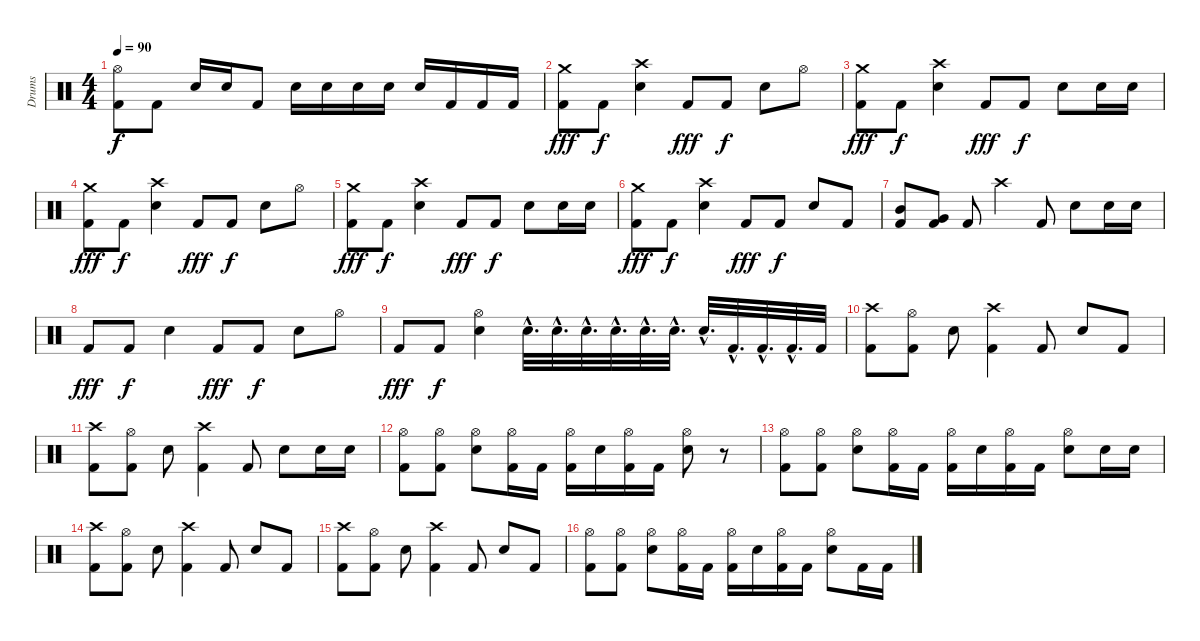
\track ("Drums" "Drums") {instrument percussion}
\staff {score}
\articulation defaults
\ts (4 4)
\tempo 90
\clef neutral
\ks c
("Hi-Hat (open)" "Kick (hit) 2").8{dy f} "Kick (hit) 2".8 "Snare (hit) 2".16 "Snare (hit) 2".16 "Kick (hit) 2".8 "Snare (hit) 2".16 "Snare (hit) 2".16 "Snare (hit) 2".16 "Snare (hit) 2".16 "Snare (hit) 2".16 "Kick (hit) 2".16 "Kick (hit) 2".16 "Kick (hit) 2".16 |
("Crash medium (hit)" "Kick (hit) 2").8{dy fff} "Kick (hit) 2".8{dy f} ("Snare (hit) 2" "Crash high (hit)").4 "Kick (hit) 2".8{dy fff} "Kick (hit) 2".8{dy f} "Snare (hit) 2".8 "Hi-Hat (open)".8 |
("Crash medium (hit)" "Kick (hit) 2").8{dy fff} "Kick (hit) 2".8{dy f} ("Snare (hit) 2" "Crash high (hit)").4 "Kick (hit) 2".8{dy fff} "Kick (hit) 2".8{dy f} "Snare (hit) 2".8 "Snare (hit) 2".16 "Snare (hit) 2".16 |
("Crash medium (hit)" "Kick (hit) 2").8{dy fff} "Kick (hit) 2".8{dy f} ("Snare (hit) 2" "Crash high (hit)").4 "Kick (hit) 2".8{dy fff} "Kick (hit) 2".8{dy f} "Snare (hit) 2".8 "Hi-Hat (open)".8 |
("Crash medium (hit)" "Kick (hit) 2").8{dy fff} "Kick (hit) 2".8{dy f} ("Snare (hit) 2" "Crash high (hit)").4 "Kick (hit) 2".8{dy fff} "Kick (hit) 2".8{dy f} "Snare (hit) 2".8 "Snare (hit) 2".16 "Snare (hit) 2".16 |
("Crash medium (hit)" "Kick (hit) 2").8{dy fff} "Kick (hit) 2".8{dy f} ("Snare (hit) 2" "Crash high (hit)").4 "Kick (hit) 2".8{dy fff} "Kick (hit) 2".8{dy f} "Snare (hit) 2".8 "Kick (hit) 2".8 |
("Mid Tom (hit)" "Kick (hit) 2").8 ("Very Low Tom (hit)" "Kick (hit) 2").8 "Kick (hit) 2".8 "Crash high (hit)".4 "Kick (hit) 2".8 "Snare (hit) 2".8 "Snare (hit) 2".16 "Snare (hit) 2".16 |
"Kick (hit) 2".8{dy fff} "Kick (hit) 2".8{dy f} "Snare (hit) 2".4 "Kick (hit) 2".8{dy fff} "Kick (hit) 2".8{dy f} "Snare (hit) 2".8 "Hi-Hat (open)".8 |
"Kick (hit) 2".8{dy fff} "Kick (hit) 2".8{dy f} ("Snare (hit) 2" "Hi-Hat (open)").4 "Snare (hit) 2"{hac}.32{d} "Snare (hit) 2"{hac}.32{d} "Snare (hit) 2"{hac}.32{d} "Snare (hit) 2"{hac}.32{d} "Snare (hit) 2"{hac}.32{d} "Snare (hit) 2"{hac}.32{d} "Snare (hit) 2"{hac}.32{d} "Kick (hit) 2"{hac}.32{d} "Kick (hit) 2"{hac}.32{d} "Kick (hit) 2"{hac}.32{d} "Kick (hit) 2".32 |
("Crash high (hit)" "Kick (hit) 2").8 ("Hi-Hat (open)" "Kick (hit) 2").8 "Snare (hit) 2".8 ("Crash high (hit)" "Kick (hit) 2").4 "Kick (hit) 2".8 "Snare (hit) 2".8 "Kick (hit) 2".8 |
("Crash high (hit)" "Kick (hit) 2").8 ("Hi-Hat (open)" "Kick (hit) 2").8 "Snare (hit) 2".8 ("Crash high (hit)" "Kick (hit) 2").4 "Kick (hit) 2".8 "Snare (hit) 2".8 "Snare (hit) 2".16 "Snare (hit) 2".16 |
("Kick (hit) 2" "Hi-Hat (open)").8 ("Kick (hit) 2" "Hi-Hat (open)").8 ("Snare (hit) 2" "Hi-Hat (open)").8 ("Kick (hit) 2" "Hi-Hat (open)").16 "Kick (hit) 2".16 ("Kick (hit) 2" "Hi-Hat (open)").16 "Snare (hit) 2".16 ("Kick (hit) 2" "Hi-Hat (open)").16 "Kick (hit) 2".16 ("Snare (hit) 2" "Hi-Hat (open)").8 r.8 |
("Kick (hit) 2" "Hi-Hat (open)").8 ("Kick (hit) 2" "Hi-Hat (open)").8 ("Snare (hit) 2" "Hi-Hat (open)").8 ("Kick (hit) 2" "Hi-Hat (open)").16 "Kick (hit) 2".16 ("Kick (hit) 2" "Hi-Hat (open)").16 "Snare (hit) 2".16 ("Kick (hit) 2" "Hi-Hat (open)").16 "Kick (hit) 2".16 ("Snare (hit) 2" "Hi-Hat (open)").8 "Snare (hit) 2".16 "Snare (hit) 2".16 |
("Crash high (hit)" "Kick (hit) 2").8 ("Hi-Hat (open)" "Kick (hit) 2").8 "Snare (hit) 2".8 ("Crash high (hit)" "Kick (hit) 2").4 "Kick (hit) 2".8 "Snare (hit) 2".8 "Kick (hit) 2".8 |
("Crash high (hit)" "Kick (hit) 2").8 ("Hi-Hat (open)" "Kick (hit) 2").8 "Snare (hit) 2".8 ("Crash high (hit)" "Kick (hit) 2").4 "Kick (hit) 2".8 "Snare (hit) 2".8 "Kick (hit) 2".8 |
("Kick (hit) 2" "Hi-Hat (open)").8 ("Kick (hit) 2" "Hi-Hat (open)").8 ("Snare (hit) 2" "Hi-Hat (open)").8 ("Kick (hit) 2" "Hi-Hat (open)").16 "Kick (hit) 2".16 ("Kick (hit) 2" "Hi-Hat (open)").16 "Snare (hit) 2".16 ("Kick (hit) 2" "Hi-Hat (open)").16 "Kick (hit) 2".16 ("Snare (hit) 2" "Hi-Hat (open)").8 "Kick (hit) 2".16 "Kick (hit) 2".16
